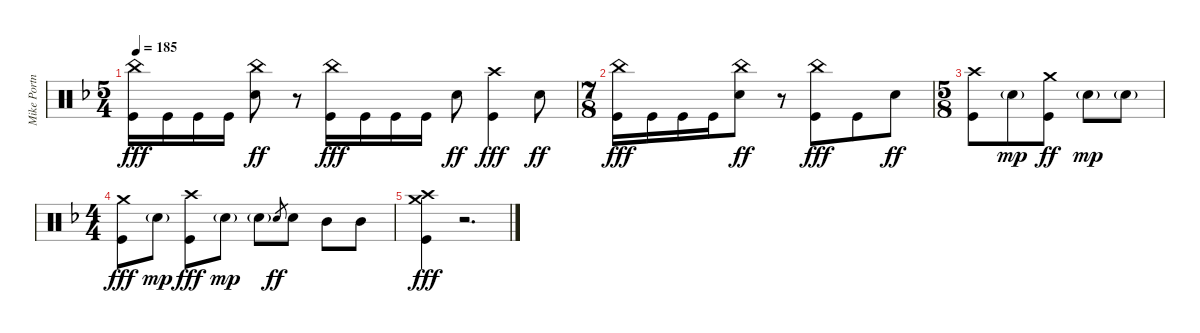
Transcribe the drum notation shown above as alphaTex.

\track ("Mike Portnoy" "Mike Portn") {instrument percussion}
\staff {score}
\articulation defaults
\ts (5 4)
\tempo 185
\clef neutral
\ks f
("China (hit)" "Kick (hit)").16{dy fff} "Kick (hit)".16 "Kick (hit)".16 "Kick (hit)".16 ("China (hit)" "Electric Snare (hit)").8{dy ff} r.8 ("China (hit)" "Kick (hit)").16{dy fff} "Kick (hit)".16 "Kick (hit)".16 "Kick (hit)".16 "Electric Snare (hit)".8{dy ff} ("Crash high (hit)" "Kick (hit)").4{dy fff} "Electric Snare (hit)".8{dy ff} |
\ts (7 8)
("China (hit)" "Kick (hit)").16{dy fff} "Kick (hit)".16 "Kick (hit)".16 "Kick (hit)".16 ("China (hit)" "Electric Snare (hit)").8{dy ff} r.8 ("China (hit)" "Kick (hit)").8{dy fff} "Kick (hit)".8 "Electric Snare (hit)".8{dy ff} |
\ts (5 8)
("Crash high (hit)" "Kick (hit)").8 "Electric Snare (hit)"{g}.8{dy mp} ("Crash medium (hit)" "Kick (hit)").8{dy ff} "Electric Snare (hit)"{g}.8{dy mp} "Electric Snare (hit)"{g}.8 |
\ts (4 4)
("Crash medium (hit)" "Kick (hit)").8{dy fff} "Electric Snare (hit)"{g}.8{dy mp} ("Crash high (hit)" "Kick (hit)").8{dy fff} "Electric Snare (hit)"{g}.8{dy mp} "Electric Snare (hit)"{g}.8 "Electric Snare (hit)".8{gr dy ff} "Electric Snare (hit)".8 "Mid Tom (hit)".8 "Mid Tom (hit)".8 |
("Crash high (hit)" "Crash medium (hit)" "Kick (hit)").4{dy fff} r.2{d}
